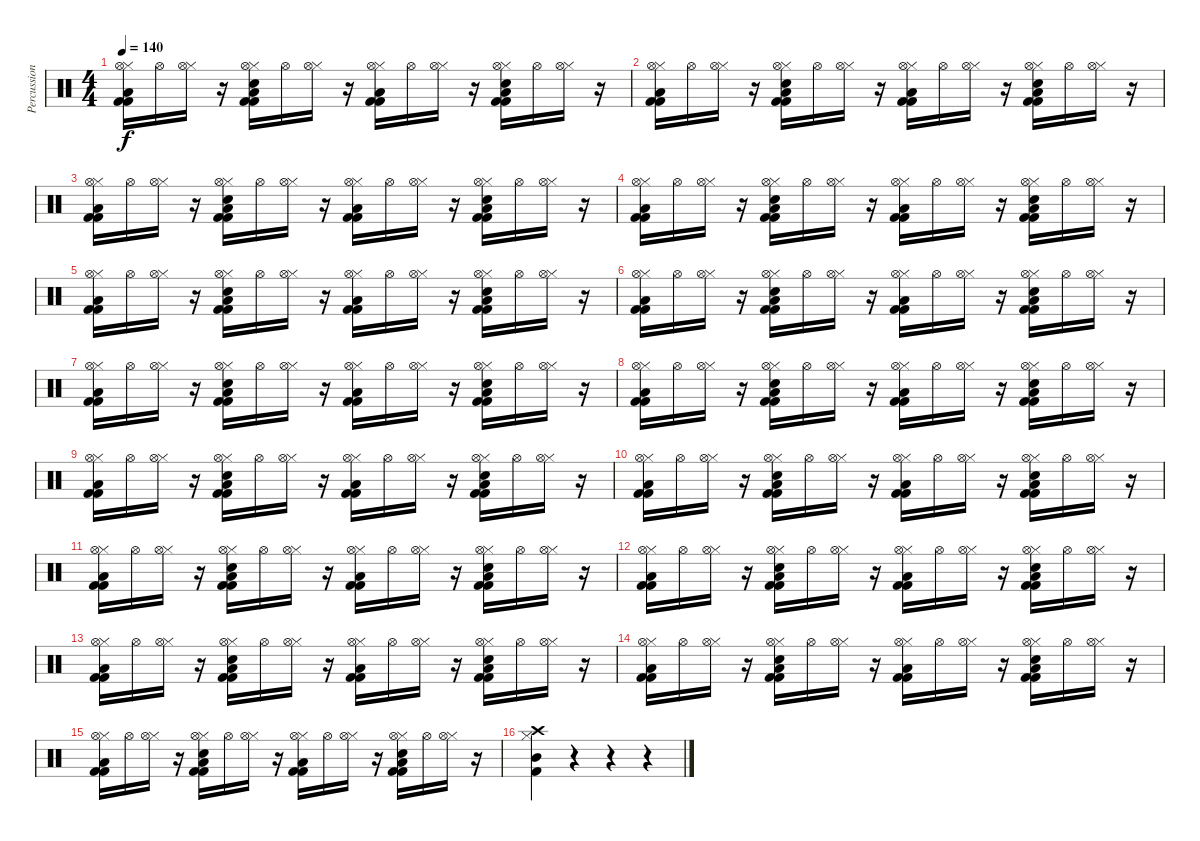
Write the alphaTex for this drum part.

\track ("Percussion" "Percussion") {instrument percussion}
\staff {score}
\articulation defaults
\ts (4 4)
\tempo 140
\clef neutral
\ks c
("Hi-Hat (closed)" "Low Tom (hit)" "Kick (hit) 2" "Kick (hit) 2" "Hi-Hat (open)").16{dy f} "Hi-Hat (open)".16 ("Hi-Hat (closed)" "Hi-Hat (open)").16 r.16 ("Hi-Hat (closed)" "Low Tom (hit)" "Kick (hit) 2" "Kick (hit) 2" "Hand Clap (hit)" "Hi-Hat (open)").16 "Hi-Hat (open)".16 ("Hi-Hat (closed)" "Hi-Hat (open)").16 r.16 ("Hi-Hat (closed)" "Low Tom (hit)" "Kick (hit) 2" "Kick (hit) 2" "Hi-Hat (open)").16 "Hi-Hat (open)".16 ("Hi-Hat (closed)" "Hi-Hat (open)").16 r.16 ("Hi-Hat (closed)" "Low Tom (hit)" "Kick (hit) 2" "Kick (hit) 2" "Hand Clap (hit)" "Hi-Hat (open)").16 "Hi-Hat (open)".16 ("Hi-Hat (closed)" "Hi-Hat (open)").16 r.16 |
("Hi-Hat (closed)" "Low Tom (hit)" "Kick (hit) 2" "Kick (hit) 2" "Hi-Hat (open)").16 "Hi-Hat (open)".16 ("Hi-Hat (closed)" "Hi-Hat (open)").16 r.16 ("Hi-Hat (closed)" "Low Tom (hit)" "Kick (hit) 2" "Kick (hit) 2" "Hand Clap (hit)" "Hi-Hat (open)").16 "Hi-Hat (open)".16 ("Hi-Hat (closed)" "Hi-Hat (open)").16 r.16 ("Hi-Hat (closed)" "Low Tom (hit)" "Kick (hit) 2" "Kick (hit) 2" "Hi-Hat (open)").16 "Hi-Hat (open)".16 ("Hi-Hat (closed)" "Hi-Hat (open)").16 r.16 ("Hi-Hat (closed)" "Low Tom (hit)" "Kick (hit) 2" "Kick (hit) 2" "Hand Clap (hit)" "Hi-Hat (open)").16 "Hi-Hat (open)".16 ("Hi-Hat (closed)" "Hi-Hat (open)").16 r.16 |
("Hi-Hat (closed)" "Low Tom (hit)" "Kick (hit) 2" "Kick (hit) 2" "Hi-Hat (open)").16 "Hi-Hat (open)".16 ("Hi-Hat (closed)" "Hi-Hat (open)").16 r.16 ("Hi-Hat (closed)" "Low Tom (hit)" "Kick (hit) 2" "Kick (hit) 2" "Hand Clap (hit)" "Hi-Hat (open)").16 "Hi-Hat (open)".16 ("Hi-Hat (closed)" "Hi-Hat (open)").16 r.16 ("Hi-Hat (closed)" "Low Tom (hit)" "Kick (hit) 2" "Kick (hit) 2" "Hi-Hat (open)").16 "Hi-Hat (open)".16 ("Hi-Hat (closed)" "Hi-Hat (open)").16 r.16 ("Hi-Hat (closed)" "Low Tom (hit)" "Kick (hit) 2" "Kick (hit) 2" "Hand Clap (hit)" "Hi-Hat (open)").16 "Hi-Hat (open)".16 ("Hi-Hat (closed)" "Hi-Hat (open)").16 r.16 |
("Hi-Hat (closed)" "Low Tom (hit)" "Kick (hit) 2" "Kick (hit) 2" "Hi-Hat (open)").16 "Hi-Hat (open)".16 ("Hi-Hat (closed)" "Hi-Hat (open)").16 r.16 ("Hi-Hat (closed)" "Low Tom (hit)" "Kick (hit) 2" "Kick (hit) 2" "Hand Clap (hit)" "Hi-Hat (open)").16 "Hi-Hat (open)".16 ("Hi-Hat (closed)" "Hi-Hat (open)").16 r.16 ("Hi-Hat (closed)" "Low Tom (hit)" "Kick (hit) 2" "Kick (hit) 2" "Hi-Hat (open)").16 "Hi-Hat (open)".16 ("Hi-Hat (closed)" "Hi-Hat (open)").16 r.16 ("Hi-Hat (closed)" "Low Tom (hit)" "Kick (hit) 2" "Kick (hit) 2" "Hand Clap (hit)" "Hi-Hat (open)").16 "Hi-Hat (open)".16 ("Hi-Hat (closed)" "Hi-Hat (open)").16 r.16 |
("Hi-Hat (closed)" "Low Tom (hit)" "Kick (hit) 2" "Kick (hit) 2" "Hi-Hat (open)").16 "Hi-Hat (open)".16 ("Hi-Hat (closed)" "Hi-Hat (open)").16 r.16 ("Hi-Hat (closed)" "Low Tom (hit)" "Kick (hit) 2" "Kick (hit) 2" "Hand Clap (hit)" "Hi-Hat (open)").16 "Hi-Hat (open)".16 ("Hi-Hat (closed)" "Hi-Hat (open)").16 r.16 ("Hi-Hat (closed)" "Low Tom (hit)" "Kick (hit) 2" "Kick (hit) 2" "Hi-Hat (open)").16 "Hi-Hat (open)".16 ("Hi-Hat (closed)" "Hi-Hat (open)").16 r.16 ("Hi-Hat (closed)" "Low Tom (hit)" "Kick (hit) 2" "Kick (hit) 2" "Hand Clap (hit)" "Hi-Hat (open)").16 "Hi-Hat (open)".16 ("Hi-Hat (closed)" "Hi-Hat (open)").16 r.16 |
("Hi-Hat (closed)" "Low Tom (hit)" "Kick (hit) 2" "Kick (hit) 2" "Hi-Hat (open)").16 "Hi-Hat (open)".16 ("Hi-Hat (closed)" "Hi-Hat (open)").16 r.16 ("Hi-Hat (closed)" "Low Tom (hit)" "Kick (hit) 2" "Kick (hit) 2" "Hand Clap (hit)" "Hi-Hat (open)").16 "Hi-Hat (open)".16 ("Hi-Hat (closed)" "Hi-Hat (open)").16 r.16 ("Hi-Hat (closed)" "Low Tom (hit)" "Kick (hit) 2" "Kick (hit) 2" "Hi-Hat (open)").16 "Hi-Hat (open)".16 ("Hi-Hat (closed)" "Hi-Hat (open)").16 r.16 ("Hi-Hat (closed)" "Low Tom (hit)" "Kick (hit) 2" "Kick (hit) 2" "Hand Clap (hit)" "Hi-Hat (open)").16 "Hi-Hat (open)".16 ("Hi-Hat (closed)" "Hi-Hat (open)").16 r.16 |
("Hi-Hat (closed)" "Low Tom (hit)" "Kick (hit) 2" "Kick (hit) 2" "Hi-Hat (open)").16 "Hi-Hat (open)".16 ("Hi-Hat (closed)" "Hi-Hat (open)").16 r.16 ("Hi-Hat (closed)" "Low Tom (hit)" "Kick (hit) 2" "Kick (hit) 2" "Hand Clap (hit)" "Hi-Hat (open)").16 "Hi-Hat (open)".16 ("Hi-Hat (closed)" "Hi-Hat (open)").16 r.16 ("Hi-Hat (closed)" "Low Tom (hit)" "Kick (hit) 2" "Kick (hit) 2" "Hi-Hat (open)").16 "Hi-Hat (open)".16 ("Hi-Hat (closed)" "Hi-Hat (open)").16 r.16 ("Hi-Hat (closed)" "Low Tom (hit)" "Kick (hit) 2" "Kick (hit) 2" "Hand Clap (hit)" "Hi-Hat (open)").16 "Hi-Hat (open)".16 ("Hi-Hat (closed)" "Hi-Hat (open)").16 r.16 |
("Hi-Hat (closed)" "Low Tom (hit)" "Kick (hit) 2" "Kick (hit) 2" "Hi-Hat (open)").16 "Hi-Hat (open)".16 ("Hi-Hat (closed)" "Hi-Hat (open)").16 r.16 ("Hi-Hat (closed)" "Low Tom (hit)" "Kick (hit) 2" "Kick (hit) 2" "Hand Clap (hit)" "Hi-Hat (open)").16 "Hi-Hat (open)".16 ("Hi-Hat (closed)" "Hi-Hat (open)").16 r.16 ("Hi-Hat (closed)" "Low Tom (hit)" "Kick (hit) 2" "Kick (hit) 2" "Hi-Hat (open)").16 "Hi-Hat (open)".16 ("Hi-Hat (closed)" "Hi-Hat (open)").16 r.16 ("Hi-Hat (closed)" "Low Tom (hit)" "Kick (hit) 2" "Kick (hit) 2" "Hand Clap (hit)" "Hi-Hat (open)").16 "Hi-Hat (open)".16 ("Hi-Hat (closed)" "Hi-Hat (open)").16 r.16 |
("Hi-Hat (closed)" "Low Tom (hit)" "Kick (hit) 2" "Kick (hit) 2" "Hi-Hat (open)").16 "Hi-Hat (open)".16 ("Hi-Hat (closed)" "Hi-Hat (open)").16 r.16 ("Hi-Hat (closed)" "Low Tom (hit)" "Kick (hit) 2" "Kick (hit) 2" "Hand Clap (hit)" "Hi-Hat (open)").16 "Hi-Hat (open)".16 ("Hi-Hat (closed)" "Hi-Hat (open)").16 r.16 ("Hi-Hat (closed)" "Low Tom (hit)" "Kick (hit) 2" "Kick (hit) 2" "Hi-Hat (open)").16 "Hi-Hat (open)".16 ("Hi-Hat (closed)" "Hi-Hat (open)").16 r.16 ("Hi-Hat (closed)" "Low Tom (hit)" "Kick (hit) 2" "Kick (hit) 2" "Hand Clap (hit)" "Hi-Hat (open)").16 "Hi-Hat (open)".16 ("Hi-Hat (closed)" "Hi-Hat (open)").16 r.16 |
("Hi-Hat (closed)" "Low Tom (hit)" "Kick (hit) 2" "Kick (hit) 2" "Hi-Hat (open)").16 "Hi-Hat (open)".16 ("Hi-Hat (closed)" "Hi-Hat (open)").16 r.16 ("Hi-Hat (closed)" "Low Tom (hit)" "Kick (hit) 2" "Kick (hit) 2" "Hand Clap (hit)" "Hi-Hat (open)").16 "Hi-Hat (open)".16 ("Hi-Hat (closed)" "Hi-Hat (open)").16 r.16 ("Hi-Hat (closed)" "Low Tom (hit)" "Kick (hit) 2" "Kick (hit) 2" "Hi-Hat (open)").16 "Hi-Hat (open)".16 ("Hi-Hat (closed)" "Hi-Hat (open)").16 r.16 ("Hi-Hat (closed)" "Low Tom (hit)" "Kick (hit) 2" "Kick (hit) 2" "Hand Clap (hit)" "Hi-Hat (open)").16 "Hi-Hat (open)".16 ("Hi-Hat (closed)" "Hi-Hat (open)").16 r.16 |
("Hi-Hat (closed)" "Low Tom (hit)" "Kick (hit) 2" "Kick (hit) 2" "Hi-Hat (open)").16 "Hi-Hat (open)".16 ("Hi-Hat (closed)" "Hi-Hat (open)").16 r.16 ("Hi-Hat (closed)" "Low Tom (hit)" "Kick (hit) 2" "Kick (hit) 2" "Hand Clap (hit)" "Hi-Hat (open)").16 "Hi-Hat (open)".16 ("Hi-Hat (closed)" "Hi-Hat (open)").16 r.16 ("Hi-Hat (closed)" "Low Tom (hit)" "Kick (hit) 2" "Kick (hit) 2" "Hi-Hat (open)").16 "Hi-Hat (open)".16 ("Hi-Hat (closed)" "Hi-Hat (open)").16 r.16 ("Hi-Hat (closed)" "Low Tom (hit)" "Kick (hit) 2" "Kick (hit) 2" "Hand Clap (hit)" "Hi-Hat (open)").16 "Hi-Hat (open)".16 ("Hi-Hat (closed)" "Hi-Hat (open)").16 r.16 |
("Hi-Hat (closed)" "Low Tom (hit)" "Kick (hit) 2" "Kick (hit) 2" "Hi-Hat (open)").16 "Hi-Hat (open)".16 ("Hi-Hat (closed)" "Hi-Hat (open)").16 r.16 ("Hi-Hat (closed)" "Low Tom (hit)" "Kick (hit) 2" "Kick (hit) 2" "Hand Clap (hit)" "Hi-Hat (open)").16 "Hi-Hat (open)".16 ("Hi-Hat (closed)" "Hi-Hat (open)").16 r.16 ("Hi-Hat (closed)" "Low Tom (hit)" "Kick (hit) 2" "Kick (hit) 2" "Hi-Hat (open)").16 "Hi-Hat (open)".16 ("Hi-Hat (closed)" "Hi-Hat (open)").16 r.16 ("Hi-Hat (closed)" "Low Tom (hit)" "Kick (hit) 2" "Kick (hit) 2" "Hand Clap (hit)" "Hi-Hat (open)").16 "Hi-Hat (open)".16 ("Hi-Hat (closed)" "Hi-Hat (open)").16 r.16 |
("Hi-Hat (closed)" "Low Tom (hit)" "Kick (hit) 2" "Kick (hit) 2" "Hi-Hat (open)").16 "Hi-Hat (open)".16 ("Hi-Hat (closed)" "Hi-Hat (open)").16 r.16 ("Hi-Hat (closed)" "Low Tom (hit)" "Kick (hit) 2" "Kick (hit) 2" "Hand Clap (hit)" "Hi-Hat (open)").16 "Hi-Hat (open)".16 ("Hi-Hat (closed)" "Hi-Hat (open)").16 r.16 ("Hi-Hat (closed)" "Low Tom (hit)" "Kick (hit) 2" "Kick (hit) 2" "Hi-Hat (open)").16 "Hi-Hat (open)".16 ("Hi-Hat (closed)" "Hi-Hat (open)").16 r.16 ("Hi-Hat (closed)" "Low Tom (hit)" "Kick (hit) 2" "Kick (hit) 2" "Hand Clap (hit)" "Hi-Hat (open)").16 "Hi-Hat (open)".16 ("Hi-Hat (closed)" "Hi-Hat (open)").16 r.16 |
("Hi-Hat (closed)" "Low Tom (hit)" "Kick (hit) 2" "Kick (hit) 2" "Hi-Hat (open)").16 "Hi-Hat (open)".16 ("Hi-Hat (closed)" "Hi-Hat (open)").16 r.16 ("Hi-Hat (closed)" "Low Tom (hit)" "Kick (hit) 2" "Kick (hit) 2" "Hand Clap (hit)" "Hi-Hat (open)").16 "Hi-Hat (open)".16 ("Hi-Hat (closed)" "Hi-Hat (open)").16 r.16 ("Hi-Hat (closed)" "Low Tom (hit)" "Kick (hit) 2" "Kick (hit) 2" "Hi-Hat (open)").16 "Hi-Hat (open)".16 ("Hi-Hat (closed)" "Hi-Hat (open)").16 r.16 ("Hi-Hat (closed)" "Low Tom (hit)" "Kick (hit) 2" "Kick (hit) 2" "Hand Clap (hit)" "Hi-Hat (open)").16 "Hi-Hat (open)".16 ("Hi-Hat (closed)" "Hi-Hat (open)").16 r.16 |
("Hi-Hat (closed)" "Low Tom (hit)" "Kick (hit) 2" "Kick (hit) 2" "Hi-Hat (open)").16 "Hi-Hat (open)".16 ("Hi-Hat (closed)" "Hi-Hat (open)").16 r.16 ("Hi-Hat (closed)" "Low Tom (hit)" "Kick (hit) 2" "Kick (hit) 2" "Hand Clap (hit)" "Hi-Hat (open)").16 "Hi-Hat (open)".16 ("Hi-Hat (closed)" "Hi-Hat (open)").16 r.16 ("Hi-Hat (closed)" "Low Tom (hit)" "Kick (hit) 2" "Kick (hit) 2" "Hi-Hat (open)").16 "Hi-Hat (open)".16 ("Hi-Hat (closed)" "Hi-Hat (open)").16 r.16 ("Hi-Hat (closed)" "Low Tom (hit)" "Kick (hit) 2" "Kick (hit) 2" "Hand Clap (hit)" "Hi-Hat (open)").16 "Hi-Hat (open)".16 ("Hi-Hat (closed)" "Hi-Hat (open)").16 r.16 |
("Kick (hit) 2" "Mid Tom (hit)" "Crash high (hit)" "Hi-Hat (closed)").4 r.4 r.4 r.4
